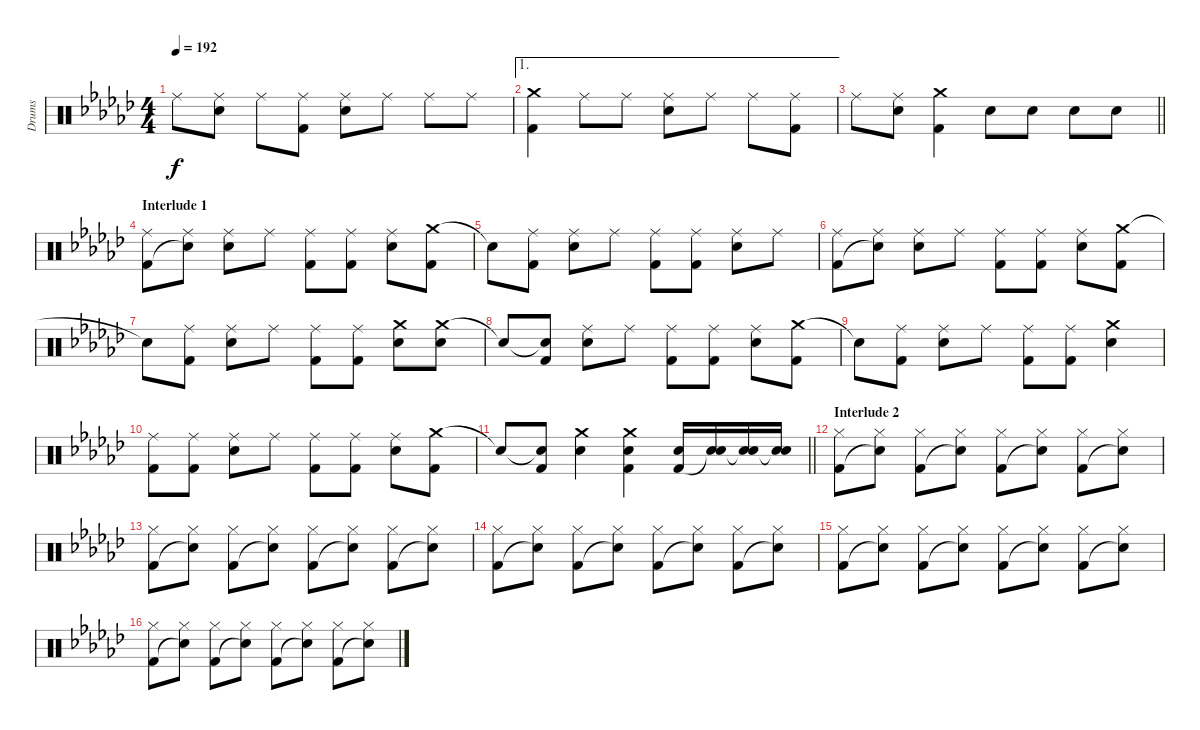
\track ("Drums" "Drums") {instrument percussion}
\staff {score}
\articulation defaults
\ts (4 4)
\tempo 192
\clef neutral
\ks ebminor "Ride (middle)".8{dy f}
("Ride (middle)" "Electric Snare (hit)").8 "Ride (middle)".8 ("Ride (middle)" "Kick (hit) 2").8 ("Ride (middle)" "Electric Snare (hit)").8 "Ride (middle)".8 "Ride (middle)".8 "Ride (middle)".8 |
\ae 1
("Crash medium (hit)" "Kick (hit) 2").4 "Ride (middle)".8 "Ride (middle)".8 ("Ride (middle)" "Electric Snare (hit)").8 "Ride (middle)".8 "Ride (middle)".8 ("Ride (middle)" "Kick (hit) 2").8 |
\barLineRight lightlight "Ride (middle)".8
("Ride (middle)" "Electric Snare (hit)").8 ("Crash medium (hit)" "Kick (hit) 2").4 "Electric Snare (hit)".8 "Electric Snare (hit)".8 "Electric Snare (hit)".8 "Electric Snare (hit)".8 |
\section ("" "Interlude 1")
("Ride (middle)" "Kick (hit) 2").8 ("Ride (middle)" "Snare (hit)"{t}).8 ("Ride (middle)" "Electric Snare (hit)").8 "Ride (middle)".8 ("Ride (middle)" "Kick (hit) 2").8 ("Ride (middle)" "Kick (hit) 2").8 ("Ride (middle)" "Electric Snare (hit)").8 ("Crash medium (hit)" "Kick (hit) 2").8 |
"Snare (hit)"{t}.8 ("Ride (middle)" "Kick (hit) 2").8 ("Ride (middle)" "Electric Snare (hit)").8 "Ride (middle)".8 ("Ride (middle)" "Kick (hit) 2").8 ("Ride (middle)" "Kick (hit) 2").8 ("Ride (middle)" "Electric Snare (hit)").8 "Ride (middle)".8 |
("Ride (middle)" "Kick (hit) 2").8 ("Ride (middle)" "Snare (hit)"{t}).8 ("Ride (middle)" "Electric Snare (hit)").8 "Ride (middle)".8 ("Ride (middle)" "Kick (hit) 2").8 ("Ride (middle)" "Kick (hit) 2").8 ("Ride (middle)" "Electric Snare (hit)").8 ("Crash medium (hit)" "Kick (hit) 2").8 |
"Snare (hit)"{t}.8 ("Ride (middle)" "Kick (hit) 2").8 ("Ride (middle)" "Electric Snare (hit)").8 "Ride (middle)".8 ("Ride (middle)" "Kick (hit) 2").8 ("Ride (middle)" "Kick (hit) 2").8 ("Crash medium (hit)" "Electric Snare (hit)").8 ("Crash medium (hit)" "Electric Snare (hit)").8 |
"Snare (hit)"{t}.8 ("Snare (hit)"{t} "Kick (hit) 2").8 ("Ride (middle)" "Electric Snare (hit)").8 "Ride (middle)".8 ("Ride (middle)" "Kick (hit) 2").8 ("Ride (middle)" "Kick (hit) 2").8 ("Ride (middle)" "Electric Snare (hit)").8 ("Crash medium (hit)" "Kick (hit) 2").8 |
"Snare (hit)"{t}.8 ("Ride (middle)" "Kick (hit) 2").8 ("Ride (middle)" "Electric Snare (hit)").8 "Ride (middle)".8 ("Ride (middle)" "Kick (hit) 2").8 ("Ride (middle)" "Kick (hit) 2").8 ("Crash medium (hit)" "Electric Snare (hit)").4 |
("Ride (middle)" "Kick (hit) 2").8 ("Ride (middle)" "Kick (hit) 2").8 ("Ride (middle)" "Electric Snare (hit)").8 "Ride (middle)".8 ("Ride (middle)" "Kick (hit) 2").8 ("Ride (middle)" "Kick (hit) 2").8 ("Ride (middle)" "Electric Snare (hit)").8 ("Crash medium (hit)" "Kick (hit) 2").8 |
\barLineRight lightlight "Snare (hit)"{t}.8
("Snare (hit)"{t} "Kick (hit) 2").8 ("Crash medium (hit)" "Electric Snare (hit)").4 ("Crash medium (hit)" "Electric Snare (hit)" "Kick (hit) 2").4 ("Electric Snare (hit)" "Kick (hit) 2").16 ("Electric Snare (hit)" "Snare (hit)"{t}).16 ("Electric Snare (hit)" "Snare (hit)"{t}).16 ("Electric Snare (hit)" "Snare (hit)"{t}).16 |
\section ("" "Interlude 2")
("Hi-Hat (closed)" "Kick (hit) 2").8 ("Hi-Hat (closed)" "Snare (hit)"{t}).8 ("Hi-Hat (closed)" "Kick (hit) 2").8 ("Hi-Hat (closed)" "Snare (hit)"{t}).8 ("Hi-Hat (closed)" "Kick (hit) 2").8 ("Hi-Hat (closed)" "Snare (hit)"{t}).8 ("Hi-Hat (closed)" "Kick (hit) 2").8 ("Hi-Hat (closed)" "Snare (hit)"{t}).8 |
("Hi-Hat (closed)" "Kick (hit) 2").8 ("Hi-Hat (closed)" "Snare (hit)"{t}).8 ("Hi-Hat (closed)" "Kick (hit) 2").8 ("Hi-Hat (closed)" "Snare (hit)"{t}).8 ("Hi-Hat (closed)" "Kick (hit) 2").8 ("Hi-Hat (closed)" "Snare (hit)"{t}).8 ("Hi-Hat (closed)" "Kick (hit) 2").8 ("Hi-Hat (closed)" "Snare (hit)"{t}).8 |
("Hi-Hat (closed)" "Kick (hit) 2").8 ("Hi-Hat (closed)" "Snare (hit)"{t}).8 ("Hi-Hat (closed)" "Kick (hit) 2").8 ("Hi-Hat (closed)" "Snare (hit)"{t}).8 ("Hi-Hat (closed)" "Kick (hit) 2").8 ("Hi-Hat (closed)" "Snare (hit)"{t}).8 ("Hi-Hat (closed)" "Kick (hit) 2").8 ("Hi-Hat (closed)" "Snare (hit)"{t}).8 |
("Hi-Hat (closed)" "Kick (hit) 2").8 ("Hi-Hat (closed)" "Snare (hit)"{t}).8 ("Hi-Hat (closed)" "Kick (hit) 2").8 ("Hi-Hat (closed)" "Snare (hit)"{t}).8 ("Hi-Hat (closed)" "Kick (hit) 2").8 ("Hi-Hat (closed)" "Snare (hit)"{t}).8 ("Hi-Hat (closed)" "Kick (hit) 2").8 ("Hi-Hat (closed)" "Snare (hit)"{t}).8 |
("Hi-Hat (closed)" "Kick (hit) 2").8 ("Hi-Hat (closed)" "Snare (hit)"{t}).8 ("Hi-Hat (closed)" "Kick (hit) 2").8 ("Hi-Hat (closed)" "Snare (hit)"{t}).8 ("Hi-Hat (closed)" "Kick (hit) 2").8 ("Hi-Hat (closed)" "Snare (hit)"{t}).8 ("Hi-Hat (closed)" "Kick (hit) 2").8 ("Hi-Hat (closed)" "Snare (hit)"{t}).8
